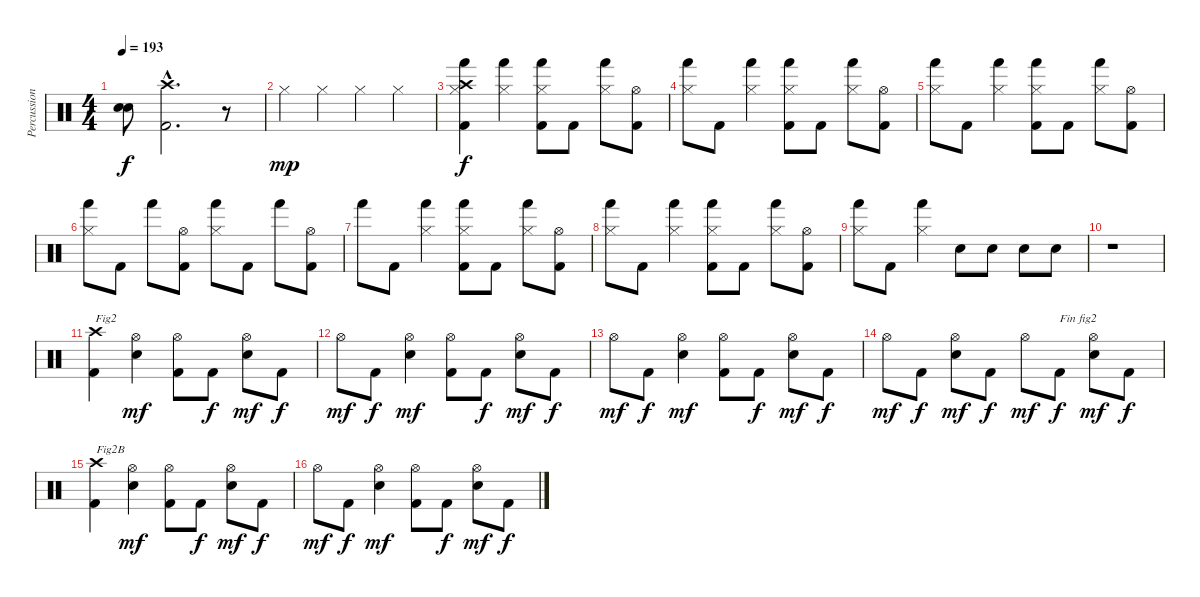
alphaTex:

\track ("Percussions" "Percussion") {instrument percussion}
\staff {score}
\articulation defaults
\ts (4 4)
\tempo 193
\clef neutral
\ks c
("Snare (hit)"{t} "Snare (hit)"{t}).8{dy f} ("Kick (hit) 2"{hac} "Crash high (hit)"{hac}).2{d} r.8 |
"Hi-Hat (closed)".4{dy mp} "Hi-Hat (closed)".4 "Hi-Hat (closed)".4 "Hi-Hat (closed)".4 |
("Kick (hit) 2" "Crash high (hit)" "Hand (hit)" "Hi-Hat (closed)").4{dy f} ("Hand (hit)" "Hi-Hat (closed)").4 ("Kick (hit) 2" "Hand (hit)" "Hi-Hat (closed)").8 "Kick (hit) 2".8 ("Hand (hit)" "Hi-Hat (closed)").8 ("Kick (hit) 2" "Hi-Hat (open)").8 |
("Hand (hit)" "Hi-Hat (closed)").8 "Kick (hit) 2".8 ("Hand (hit)" "Hi-Hat (closed)").4 ("Kick (hit) 2" "Hand (hit)" "Hi-Hat (closed)").8 "Kick (hit) 2".8 ("Hand (hit)" "Hi-Hat (closed)").8 ("Kick (hit) 2" "Hi-Hat (open)").8 |
("Hand (hit)" "Hi-Hat (closed)").8 "Kick (hit) 2".8 ("Hand (hit)" "Hi-Hat (closed)").4 ("Kick (hit) 2" "Hand (hit)" "Hi-Hat (closed)").8 "Kick (hit) 2".8 ("Hand (hit)" "Hi-Hat (closed)").8 ("Kick (hit) 2" "Hi-Hat (open)").8 |
("Hand (hit)" "Hi-Hat (closed)").8 "Kick (hit) 2".8 "Hand (hit)".8 ("Kick (hit) 2" "Hi-Hat (open)").8 ("Hand (hit)" "Hi-Hat (closed)").8 "Kick (hit) 2".8 "Hand (hit)".8 ("Kick (hit) 2" "Hi-Hat (open)").8 |
"Hand (hit)".8 "Kick (hit) 2".8 ("Hand (hit)" "Hi-Hat (closed)").4 ("Kick (hit) 2" "Hand (hit)" "Hi-Hat (closed)").8 "Kick (hit) 2".8 ("Hand (hit)" "Hi-Hat (closed)").8 ("Kick (hit) 2" "Hi-Hat (open)").8 |
("Hand (hit)" "Hi-Hat (closed)").8 "Kick (hit) 2".8 ("Hand (hit)" "Hi-Hat (closed)").4 ("Kick (hit) 2" "Hand (hit)" "Hi-Hat (closed)").8 "Kick (hit) 2".8 ("Hand (hit)" "Hi-Hat (closed)").8 ("Kick (hit) 2" "Hi-Hat (open)").8 |
("Hand (hit)" "Hi-Hat (closed)").8 "Kick (hit) 2".8 ("Hand (hit)" "Hi-Hat (closed)").4 "Electric Snare (hit)".8 "Electric Snare (hit)".8 "Electric Snare (hit)".8 "Electric Snare (hit)".8 |
r.1 |
("Kick (hit) 2" "Crash high (hit)").4{txt "Fig2"} ("Electric Snare (hit)" "Hi-Hat (open)").4{dy mf} ("Kick (hit) 2" "Hi-Hat (open)").8 "Kick (hit) 2".8{dy f} ("Electric Snare (hit)" "Hi-Hat (open)").8{dy mf} "Kick (hit) 2".8{dy f} |
"Hi-Hat (open)".8{dy mf} "Kick (hit) 2".8{dy f} ("Electric Snare (hit)" "Hi-Hat (open)").4{dy mf} ("Kick (hit) 2" "Hi-Hat (open)").8 "Kick (hit) 2".8{dy f} ("Electric Snare (hit)" "Hi-Hat (open)").8{dy mf} "Kick (hit) 2".8{dy f} |
"Hi-Hat (open)".8{dy mf} "Kick (hit) 2".8{dy f} ("Electric Snare (hit)" "Hi-Hat (open)").4{dy mf} ("Kick (hit) 2" "Hi-Hat (open)").8 "Kick (hit) 2".8{dy f} ("Electric Snare (hit)" "Hi-Hat (open)").8{dy mf} "Kick (hit) 2".8{dy f} |
"Hi-Hat (open)".8{dy mf} "Kick (hit) 2".8{dy f} ("Electric Snare (hit)" "Hi-Hat (open)").8{dy mf} "Kick (hit) 2".8{dy f} "Hi-Hat (open)".8{dy mf} "Kick (hit) 2".8{txt "Fin fig2" dy f} ("Electric Snare (hit)" "Hi-Hat (open)").8{dy mf} "Kick (hit) 2".8{dy f} |
("Kick (hit) 2" "Crash high (hit)").4{txt "Fig2B"} ("Electric Snare (hit)" "Hi-Hat (open)").4{dy mf} ("Kick (hit) 2" "Hi-Hat (open)").8 "Kick (hit) 2".8{dy f} ("Electric Snare (hit)" "Hi-Hat (open)").8{dy mf} "Kick (hit) 2".8{dy f} |
"Hi-Hat (open)".8{dy mf} "Kick (hit) 2".8{dy f} ("Electric Snare (hit)" "Hi-Hat (open)").4{dy mf} ("Kick (hit) 2" "Hi-Hat (open)").8 "Kick (hit) 2".8{dy f} ("Electric Snare (hit)" "Hi-Hat (open)").8{dy mf} "Kick (hit) 2".8{dy f}
